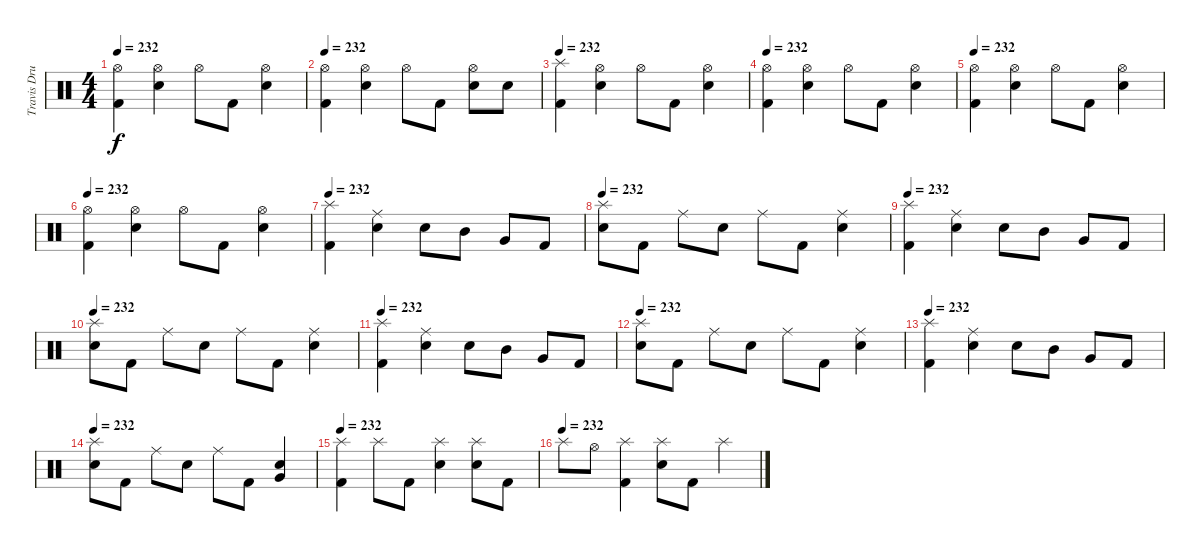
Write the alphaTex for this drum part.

\track ("Travis Drums" "Travis Dru") {instrument percussion}
\staff {score}
\articulation defaults
\ts (4 4)
\tempo 232
\clef neutral
\ks c
("Hi-Hat (open)" "Kick (hit) 2").4{dy f} ("Hi-Hat (open)" "Electric Snare (hit)").4 "Hi-Hat (open)".8 "Kick (hit) 2".8 ("Hi-Hat (open)" "Electric Snare (hit)").4 |
\tempo 232
("Hi-Hat (open)" "Kick (hit) 2").4 ("Hi-Hat (open)" "Electric Snare (hit)").4 "Hi-Hat (open)".8 "Kick (hit) 2".8 ("Hi-Hat (open)" "Electric Snare (hit)").8 "Electric Snare (hit)".8 |
\tempo 232
("Splash (hit)" "Kick (hit) 2").4 ("Hi-Hat (open)" "Electric Snare (hit)").4 "Hi-Hat (open)".8 "Kick (hit) 2".8 ("Hi-Hat (open)" "Electric Snare (hit)").4 |
\tempo 232
("Hi-Hat (open)" "Kick (hit) 2").4 ("Hi-Hat (open)" "Electric Snare (hit)").4 "Hi-Hat (open)".8 "Kick (hit) 2".8 ("Hi-Hat (open)" "Electric Snare (hit)").4 |
\tempo 232
("Hi-Hat (open)" "Kick (hit) 2").4 ("Hi-Hat (open)" "Electric Snare (hit)").4 "Hi-Hat (open)".8 "Kick (hit) 2".8 ("Hi-Hat (open)" "Electric Snare (hit)").4 |
\tempo 232
("Hi-Hat (open)" "Kick (hit) 2").4 ("Hi-Hat (open)" "Electric Snare (hit)").4 "Hi-Hat (open)".8 "Kick (hit) 2".8 ("Hi-Hat (open)" "Electric Snare (hit)").4 |
\tempo 232
("Splash (hit)" "Kick (hit) 2").4 ("Ride (middle)" "Electric Snare (hit)").4 "Electric Snare (hit)".8 "Mid Tom (hit)".8 "Very Low Tom (hit)".8 "Kick (hit) 2".8 |
\tempo 232
("Splash (hit)" "Electric Snare (hit)").8 "Kick (hit) 2".8 "Ride (middle)".8 "Electric Snare (hit)".8 "Ride (middle)".8 "Kick (hit) 2".8 ("Ride (middle)" "Electric Snare (hit)").4 |
\tempo 232
("Splash (hit)" "Kick (hit) 2").4 ("Ride (middle)" "Electric Snare (hit)").4 "Electric Snare (hit)".8 "Mid Tom (hit)".8 "Very Low Tom (hit)".8 "Kick (hit) 2".8 |
\tempo 232
("Splash (hit)" "Electric Snare (hit)").8 "Kick (hit) 2".8 "Ride (middle)".8 "Electric Snare (hit)".8 "Ride (middle)".8 "Kick (hit) 2".8 ("Ride (middle)" "Electric Snare (hit)").4 |
\tempo 232
("Splash (hit)" "Kick (hit) 2").4 ("Ride (middle)" "Electric Snare (hit)").4 "Electric Snare (hit)".8 "Mid Tom (hit)".8 "Very Low Tom (hit)".8 "Kick (hit) 2".8 |
\tempo 232
("Splash (hit)" "Electric Snare (hit)").8 "Kick (hit) 2".8 "Ride (middle)".8 "Electric Snare (hit)".8 "Ride (middle)".8 "Kick (hit) 2".8 ("Ride (middle)" "Electric Snare (hit)").4 |
\tempo 232
("Splash (hit)" "Kick (hit) 2").4 ("Ride (middle)" "Electric Snare (hit)").4 "Electric Snare (hit)".8 "Mid Tom (hit)".8 "Very Low Tom (hit)".8 "Kick (hit) 2".8 |
\tempo 232
("Splash (hit)" "Electric Snare (hit)").8 "Kick (hit) 2".8 "Ride (middle)".8 "Electric Snare (hit)".8 "Ride (middle)".8 "Kick (hit) 2".8 ("Very Low Tom (hit)" "Electric Snare (hit)").4 |
\tempo 232
("Splash (hit)" "Kick (hit) 2").4 "Splash (hit)".8 "Kick (hit) 2".8 ("Splash (hit)" "Electric Snare (hit)").4 ("Splash (hit)" "Electric Snare (hit)").8 "Kick (hit) 2".8 |
\tempo (232)
"Splash (hit)".8 "Hi-Hat (open)".8 ("Splash (hit)" "Kick (hit) 2").4 ("Splash (hit)" "Electric Snare (hit)").8 "Kick (hit) 2".8 "Splash (hit)".4
